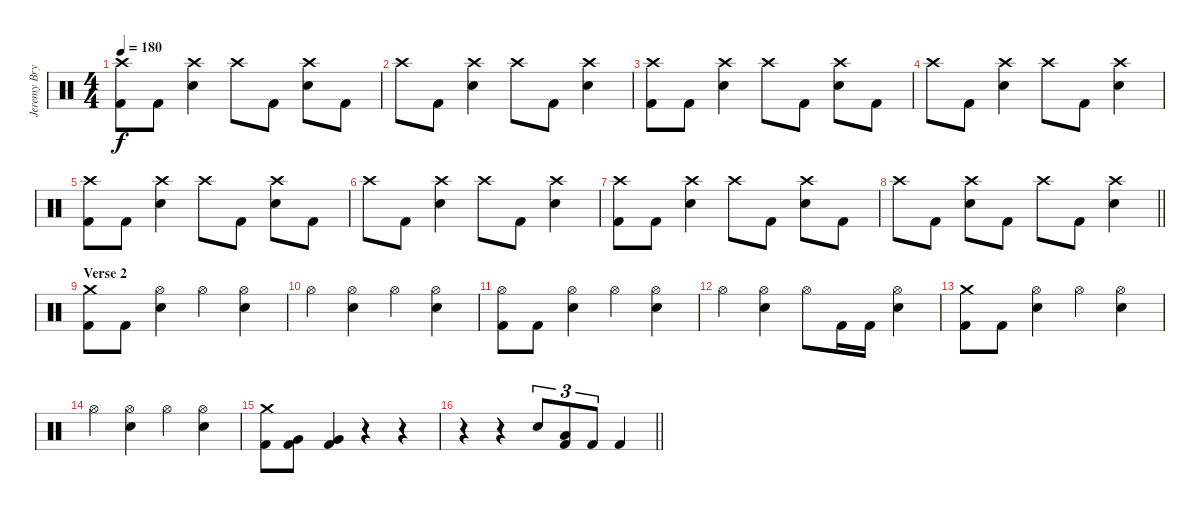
\track ("Jeremy Bryan - Drums" "Jeremy Bry") {instrument percussion}
\staff {score}
\articulation defaults
\ts (4 4)
\tempo 180
\clef neutral
\ks c
("Crash high (hit)" "Kick (hit) 2").8{dy f} "Kick (hit) 2".8 ("Crash high (hit)" "Electric Snare (hit)").4 "Crash high (hit)".8 "Kick (hit) 2".8 ("Crash high (hit)" "Electric Snare (hit)").8 "Kick (hit) 2".8 |
"Crash high (hit)".8 "Kick (hit) 2".8 ("Crash high (hit)" "Electric Snare (hit)").4 "Crash high (hit)".8 "Kick (hit) 2".8 ("Crash high (hit)" "Electric Snare (hit)").4 |
("Crash high (hit)" "Kick (hit) 2").8 "Kick (hit) 2".8 ("Crash high (hit)" "Electric Snare (hit)").4 "Crash high (hit)".8 "Kick (hit) 2".8 ("Crash high (hit)" "Electric Snare (hit)").8 "Kick (hit) 2".8 |
"Crash high (hit)".8 "Kick (hit) 2".8 ("Crash high (hit)" "Electric Snare (hit)").4 "Crash high (hit)".8 "Kick (hit) 2".8 ("Crash high (hit)" "Electric Snare (hit)").4 |
("Crash high (hit)" "Kick (hit) 2").8 "Kick (hit) 2".8 ("Crash high (hit)" "Electric Snare (hit)").4 "Crash high (hit)".8 "Kick (hit) 2".8 ("Crash high (hit)" "Electric Snare (hit)").8 "Kick (hit) 2".8 |
"Crash high (hit)".8 "Kick (hit) 2".8 ("Crash high (hit)" "Electric Snare (hit)").4 "Crash high (hit)".8 "Kick (hit) 2".8 ("Crash high (hit)" "Electric Snare (hit)").4 |
("Crash high (hit)" "Kick (hit) 2").8 "Kick (hit) 2".8 ("Crash high (hit)" "Electric Snare (hit)").4 "Crash high (hit)".8 "Kick (hit) 2".8 ("Crash high (hit)" "Electric Snare (hit)").8 "Kick (hit) 2".8 |
\barLineRight lightlight "Crash high (hit)".8 "Kick (hit) 2".8
("Crash high (hit)" "Electric Snare (hit)").8 "Kick (hit) 2".8 "Crash high (hit)".8 "Kick (hit) 2".8 ("Crash high (hit)" "Electric Snare (hit)").4 |
\section ("" "Verse 2")
("Crash medium (hit)" "Kick (hit) 2").8 "Kick (hit) 2".8 ("Hi-Hat (open)" "Electric Snare (hit)").4 "Hi-Hat (open)".4 ("Hi-Hat (open)" "Electric Snare (hit)").4 |
"Hi-Hat (open)".4 ("Hi-Hat (open)" "Electric Snare (hit)").4 "Hi-Hat (open)".4 ("Hi-Hat (open)" "Electric Snare (hit)").4 |
("Hi-Hat (open)" "Kick (hit) 2").8 "Kick (hit) 2".8 ("Hi-Hat (open)" "Electric Snare (hit)").4 "Hi-Hat (open)".4 ("Hi-Hat (open)" "Electric Snare (hit)").4 |
"Hi-Hat (open)".4 ("Hi-Hat (open)" "Electric Snare (hit)").4 "Hi-Hat (open)".8 "Kick (hit) 2".16 "Kick (hit) 2".16 ("Hi-Hat (open)" "Electric Snare (hit)").4 |
("Crash medium (hit)" "Kick (hit) 2").8 "Kick (hit) 2".8 ("Hi-Hat (open)" "Electric Snare (hit)").4 "Hi-Hat (open)".4 ("Hi-Hat (open)" "Electric Snare (hit)").4 |
"Hi-Hat (open)".4 ("Hi-Hat (open)" "Electric Snare (hit)").4 "Hi-Hat (open)".4 ("Hi-Hat (open)" "Electric Snare (hit)").4 |
("Crash medium (hit)" "Kick (hit) 2").8 ("Very Low Tom (hit)" "Kick (hit) 2").8 ("Very Low Tom (hit)" "Kick (hit) 2").4 r.4 r.4 |
\barLineRight lightlight
r.4 r.4 "Electric Snare (hit)".8{tu (3 2)} ("Low Floor Tom (hit)" "Kick (hit) 2").8{tu (3 2)} "Kick (hit) 2".8{tu (3 2)} "Kick (hit) 2".4
